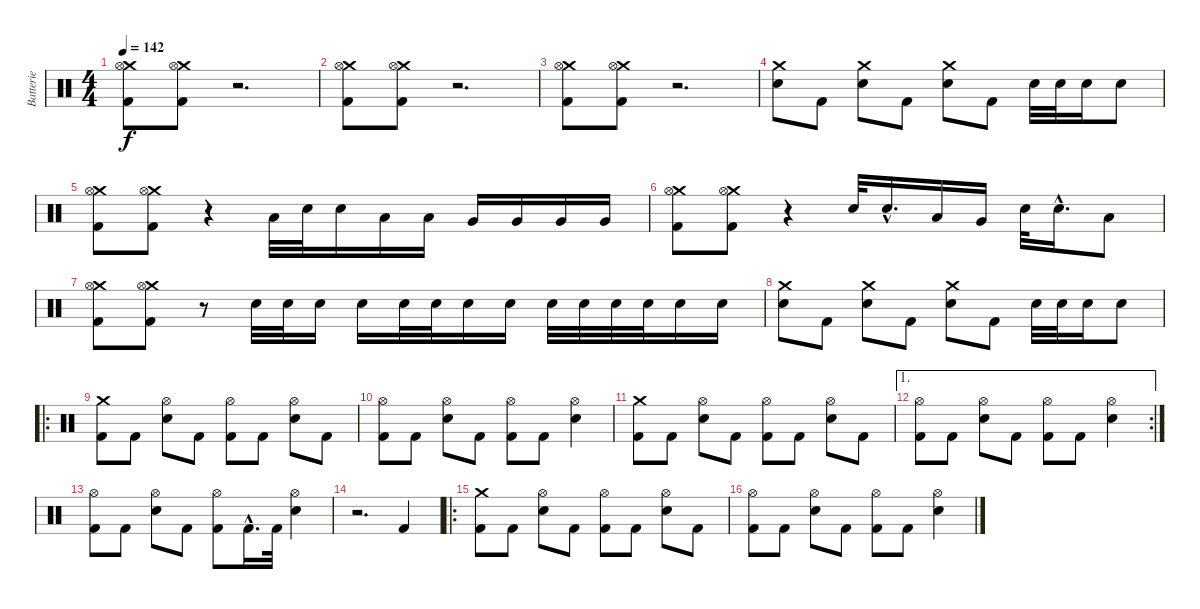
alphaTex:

\track ("Batterie" "Batterie") {instrument percussion}
\staff {score}
\articulation defaults
\ts (4 4)
\tempo 142
\clef neutral
\ks c
("Kick (hit) 2" "Crash medium (hit)" "Hi-Hat (open)").8{dy f} ("Kick (hit) 2" "Crash medium (hit)" "Hi-Hat (open)").8 r.2{d} |
("Kick (hit) 2" "Crash medium (hit)" "Hi-Hat (open)").8 ("Kick (hit) 2" "Crash medium (hit)" "Hi-Hat (open)").8 r.2{d} |
("Kick (hit) 2" "Crash medium (hit)" "Hi-Hat (open)").8 ("Kick (hit) 2" "Crash medium (hit)" "Hi-Hat (open)").8 r.2{d} |
("Electric Snare (hit)" "Crash medium (hit)").8 "Kick (hit) 2".8 ("Electric Snare (hit)" "Crash medium (hit)").8 "Kick (hit) 2".8 ("Electric Snare (hit)" "Crash medium (hit)").8 "Kick (hit) 2".8 "Electric Snare (hit)".32 "Electric Snare (hit)".32 "Electric Snare (hit)".16 "Electric Snare (hit)".8 |
("Kick (hit) 2" "Crash medium (hit)" "Hi-Hat (open)").8 ("Kick (hit) 2" "Crash medium (hit)" "Hi-Hat (open)").8 r.4 "Low Tom (hit)".32 "Electric Snare (hit)".32 "Electric Snare (hit)".16 "Low Tom (hit)".16 "Low Tom (hit)".16 "Very Low Tom (hit)".16 "Very Low Tom (hit)".16 "Very Low Tom (hit)".16 "Very Low Tom (hit)".16 |
("Kick (hit) 2" "Crash medium (hit)" "Hi-Hat (open)").8 ("Kick (hit) 2" "Crash medium (hit)" "Hi-Hat (open)").8 r.4 "Electric Snare (hit)".32 "Electric Snare (hit)"{hac}.16{d} "Low Tom (hit)".16 "Very Low Tom (hit)".16 "Electric Snare (hit)".32 "Electric Snare (hit)"{hac}.16{d} "Low Tom (hit)".8 |
("Kick (hit) 2" "Crash medium (hit)" "Hi-Hat (open)").8 ("Kick (hit) 2" "Crash medium (hit)" "Hi-Hat (open)").8 r.8 "Electric Snare (hit)".32 "Electric Snare (hit)".32 "Electric Snare (hit)".16 "Electric Snare (hit)".16 "Electric Snare (hit)".32 "Electric Snare (hit)".32 "Electric Snare (hit)".16 "Electric Snare (hit)".16 "Electric Snare (hit)".32 "Electric Snare (hit)".32 "Electric Snare (hit)".32 "Electric Snare (hit)".32 "Electric Snare (hit)".16 "Electric Snare (hit)".16 |
("Electric Snare (hit)" "Crash medium (hit)").8 "Kick (hit) 2".8 ("Electric Snare (hit)" "Crash medium (hit)").8 "Kick (hit) 2".8 ("Electric Snare (hit)" "Crash medium (hit)").8 "Kick (hit) 2".8 "Electric Snare (hit)".32 "Electric Snare (hit)".32 "Electric Snare (hit)".16 "Electric Snare (hit)".8 |
\ro
("Kick (hit) 2" "Crash medium (hit)").8 "Kick (hit) 2".8 ("Electric Snare (hit)" "Hi-Hat (open)").8 "Kick (hit) 2".8 ("Kick (hit) 2" "Hi-Hat (open)").8 "Kick (hit) 2".8 ("Electric Snare (hit)" "Hi-Hat (open)").8 "Kick (hit) 2".8 |
("Kick (hit) 2" "Hi-Hat (open)").8 "Kick (hit) 2".8 ("Electric Snare (hit)" "Hi-Hat (open)").8 "Kick (hit) 2".8 ("Kick (hit) 2" "Hi-Hat (open)").8 "Kick (hit) 2".8 ("Electric Snare (hit)" "Hi-Hat (open)").4 |
("Kick (hit) 2" "Crash medium (hit)").8 "Kick (hit) 2".8 ("Electric Snare (hit)" "Hi-Hat (open)").8 "Kick (hit) 2".8 ("Kick (hit) 2" "Hi-Hat (open)").8 "Kick (hit) 2".8 ("Electric Snare (hit)" "Hi-Hat (open)").8 "Kick (hit) 2".8 |
\ae 1
\rc 2
("Kick (hit) 2" "Hi-Hat (open)").8 "Kick (hit) 2".8 ("Electric Snare (hit)" "Hi-Hat (open)").8 "Kick (hit) 2".8 ("Kick (hit) 2" "Hi-Hat (open)").8 "Kick (hit) 2".8 ("Electric Snare (hit)" "Hi-Hat (open)").4 |
("Kick (hit) 2" "Hi-Hat (open)").8 "Kick (hit) 2".8 ("Electric Snare (hit)" "Hi-Hat (open)").8 "Kick (hit) 2".8 ("Kick (hit) 2" "Hi-Hat (open)").8 "Kick (hit) 2"{hac}.16{d} "Kick (hit) 2".32 ("Electric Snare (hit)" "Hi-Hat (open)").4 |
r.2{d} "Kick (hit) 2".4 |
\ro
("Kick (hit) 2" "Crash medium (hit)").8 "Kick (hit) 2".8 ("Electric Snare (hit)" "Hi-Hat (open)").8 "Kick (hit) 2".8 ("Kick (hit) 2" "Hi-Hat (open)").8 "Kick (hit) 2".8 ("Electric Snare (hit)" "Hi-Hat (open)").8 "Kick (hit) 2".8 |
("Kick (hit) 2" "Hi-Hat (open)").8 "Kick (hit) 2".8 ("Electric Snare (hit)" "Hi-Hat (open)").8 "Kick (hit) 2".8 ("Kick (hit) 2" "Hi-Hat (open)").8 "Kick (hit) 2".8 ("Electric Snare (hit)" "Hi-Hat (open)").4
